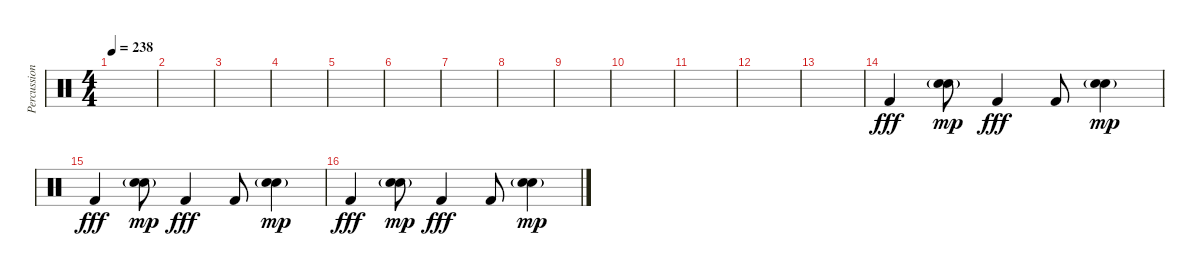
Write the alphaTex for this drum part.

\track ("Percussion" "Percussion") {instrument percussion}
\staff {score}
\articulation defaults
\ts (4 4)
\tempo 238
\clef neutral
\ks c
|
|
|
|
|
|
|
|
|
|
|
|
|
"Kick (hit) 2".4{dy fff} ("Hand Clap (hit)"{g} "Hand Clap (hit)"{g}).8{bd 480 dy mp} "Kick (hit) 2".4{dy fff} "Kick (hit) 2".8 ("Hand Clap (hit)"{g} "Hand Clap (hit)"{g}).4{bd 480 dy mp} |
"Kick (hit) 2".4{dy fff} ("Hand Clap (hit)"{g} "Hand Clap (hit)"{g}).8{bd 480 dy mp} "Kick (hit) 2".4{dy fff} "Kick (hit) 2".8 ("Hand Clap (hit)"{g} "Hand Clap (hit)"{g}).4{bd 480 dy mp} |
"Kick (hit) 2".4{dy fff} ("Hand Clap (hit)"{g} "Hand Clap (hit)"{g}).8{bd 480 dy mp} "Kick (hit) 2".4{dy fff} "Kick (hit) 2".8 ("Hand Clap (hit)"{g} "Hand Clap (hit)"{g}).4{bd 480 dy mp}
